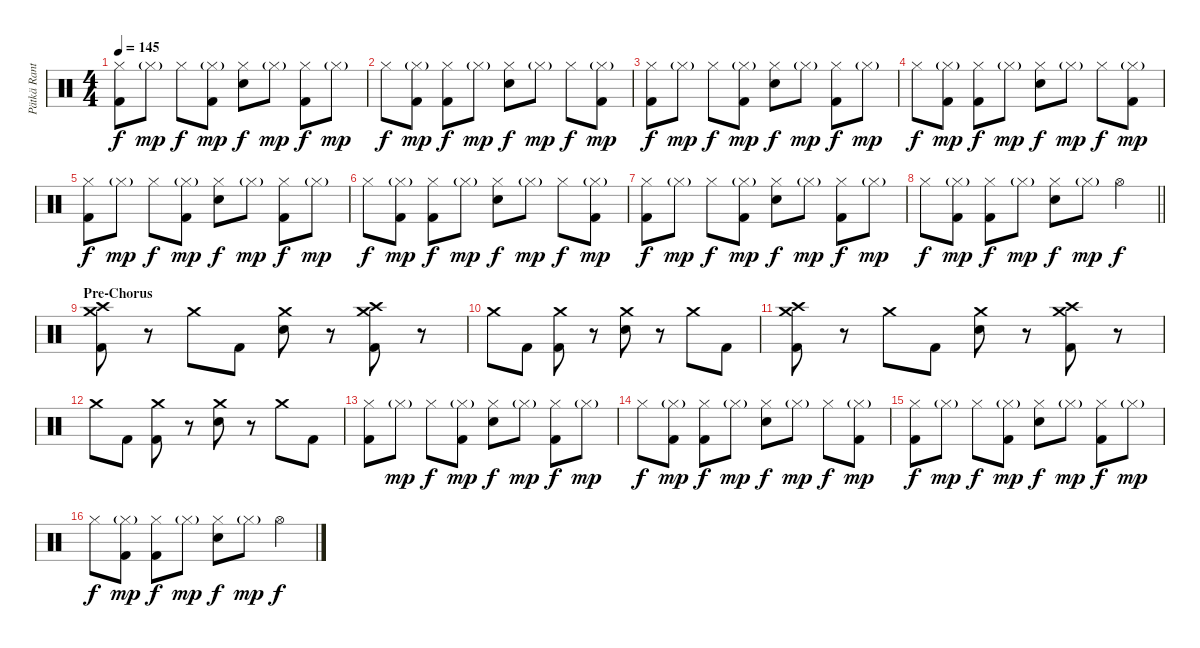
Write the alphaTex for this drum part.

\track ("Pätkä Rantala (Drums)" "Pätkä Rant") {instrument percussion}
\staff {score}
\articulation defaults
\ts (4 4)
\tempo 145
\clef neutral
\ks c
("Hi-Hat (closed)" "Kick (hit) 2").8{dy f} "Hi-Hat (closed)"{g}.8{dy mp} "Hi-Hat (closed)".8{dy f} ("Hi-Hat (closed)"{g} "Kick (hit) 2").8{dy mp} ("Hi-Hat (closed)" "Snare (hit) 2").8{dy f} "Hi-Hat (closed)"{g}.8{dy mp} ("Hi-Hat (closed)" "Kick (hit) 2").8{dy f} "Hi-Hat (closed)"{g}.8{dy mp} |
"Hi-Hat (closed)".8{dy f} ("Hi-Hat (closed)"{g} "Kick (hit) 2").8{dy mp} ("Hi-Hat (closed)" "Kick (hit) 2").8{dy f} "Hi-Hat (closed)"{g}.8{dy mp} ("Hi-Hat (closed)" "Snare (hit) 2").8{dy f} "Hi-Hat (closed)"{g}.8{dy mp} "Hi-Hat (closed)".8{dy f} ("Hi-Hat (closed)"{g} "Kick (hit) 2").8{dy mp} |
("Hi-Hat (closed)" "Kick (hit) 2").8{dy f} "Hi-Hat (closed)"{g}.8{dy mp} "Hi-Hat (closed)".8{dy f} ("Hi-Hat (closed)"{g} "Kick (hit) 2").8{dy mp} ("Hi-Hat (closed)" "Snare (hit) 2").8{dy f} "Hi-Hat (closed)"{g}.8{dy mp} ("Hi-Hat (closed)" "Kick (hit) 2").8{dy f} "Hi-Hat (closed)"{g}.8{dy mp} |
"Hi-Hat (closed)".8{dy f} ("Hi-Hat (closed)"{g} "Kick (hit) 2").8{dy mp} ("Hi-Hat (closed)" "Kick (hit) 2").8{dy f} "Hi-Hat (closed)"{g}.8{dy mp} ("Hi-Hat (closed)" "Snare (hit) 2").8{dy f} "Hi-Hat (closed)"{g}.8{dy mp} "Hi-Hat (closed)".8{dy f} ("Hi-Hat (closed)"{g} "Kick (hit) 2").8{dy mp} |
("Hi-Hat (closed)" "Kick (hit) 2").8{dy f} "Hi-Hat (closed)"{g}.8{dy mp} "Hi-Hat (closed)".8{dy f} ("Hi-Hat (closed)"{g} "Kick (hit) 2").8{dy mp} ("Hi-Hat (closed)" "Snare (hit) 2").8{dy f} "Hi-Hat (closed)"{g}.8{dy mp} ("Hi-Hat (closed)" "Kick (hit) 2").8{dy f} "Hi-Hat (closed)"{g}.8{dy mp} |
"Hi-Hat (closed)".8{dy f} ("Hi-Hat (closed)"{g} "Kick (hit) 2").8{dy mp} ("Hi-Hat (closed)" "Kick (hit) 2").8{dy f} "Hi-Hat (closed)"{g}.8{dy mp} ("Hi-Hat (closed)" "Snare (hit) 2").8{dy f} "Hi-Hat (closed)"{g}.8{dy mp} "Hi-Hat (closed)".8{dy f} ("Hi-Hat (closed)"{g} "Kick (hit) 2").8{dy mp} |
("Hi-Hat (closed)" "Kick (hit) 2").8{dy f} "Hi-Hat (closed)"{g}.8{dy mp} "Hi-Hat (closed)".8{dy f} ("Hi-Hat (closed)"{g} "Kick (hit) 2").8{dy mp} ("Hi-Hat (closed)" "Snare (hit) 2").8{dy f} "Hi-Hat (closed)"{g}.8{dy mp} ("Hi-Hat (closed)" "Kick (hit) 2").8{dy f} "Hi-Hat (closed)"{g}.8{dy mp} |
\barLineRight lightlight "Hi-Hat (closed)".8{dy f}
("Hi-Hat (closed)"{g} "Kick (hit) 2").8{dy mp} ("Hi-Hat (closed)" "Kick (hit) 2").8{dy f} "Hi-Hat (closed)"{g}.8{dy mp} ("Hi-Hat (closed)" "Snare (hit) 2").8{dy f} "Hi-Hat (closed)"{g}.8{dy mp} "Hi-Hat (open)".4{dy f} |
\section ("" "Pre-Chorus")
("Crash high (hit)" "Crash medium (hit)" "Kick (hit) 2").8 r.8 "Crash medium (hit)".8 "Kick (hit) 2".8 ("Crash medium (hit)" "Snare (hit) 2").8 r.8 ("Crash high (hit)" "Crash medium (hit)" "Kick (hit) 2").8 r.8 |
"Crash medium (hit)".8 "Kick (hit) 2".8 ("Crash medium (hit)" "Kick (hit) 2").8 r.8 ("Crash medium (hit)" "Snare (hit) 2").8 r.8 "Crash medium (hit)".8 "Kick (hit) 2".8 |
("Crash high (hit)" "Crash medium (hit)" "Kick (hit) 2").8 r.8 "Crash medium (hit)".8 "Kick (hit) 2".8 ("Crash medium (hit)" "Snare (hit) 2").8 r.8 ("Crash high (hit)" "Crash medium (hit)" "Kick (hit) 2").8 r.8 |
"Crash medium (hit)".8 "Kick (hit) 2".8 ("Crash medium (hit)" "Kick (hit) 2").8 r.8 ("Crash medium (hit)" "Snare (hit) 2").8 r.8 "Crash medium (hit)".8 "Kick (hit) 2".8 |
("Hi-Hat (closed)" "Kick (hit) 2").8 "Hi-Hat (closed)"{g}.8{dy mp} "Hi-Hat (closed)".8{dy f} ("Hi-Hat (closed)"{g} "Kick (hit) 2").8{dy mp} ("Hi-Hat (closed)" "Snare (hit) 2").8{dy f} "Hi-Hat (closed)"{g}.8{dy mp} ("Hi-Hat (closed)" "Kick (hit) 2").8{dy f} "Hi-Hat (closed)"{g}.8{dy mp} |
"Hi-Hat (closed)".8{dy f} ("Hi-Hat (closed)"{g} "Kick (hit) 2").8{dy mp} ("Hi-Hat (closed)" "Kick (hit) 2").8{dy f} "Hi-Hat (closed)"{g}.8{dy mp} ("Hi-Hat (closed)" "Snare (hit) 2").8{dy f} "Hi-Hat (closed)"{g}.8{dy mp} "Hi-Hat (closed)".8{dy f} ("Hi-Hat (closed)"{g} "Kick (hit) 2").8{dy mp} |
("Hi-Hat (closed)" "Kick (hit) 2").8{dy f} "Hi-Hat (closed)"{g}.8{dy mp} "Hi-Hat (closed)".8{dy f} ("Hi-Hat (closed)"{g} "Kick (hit) 2").8{dy mp} ("Hi-Hat (closed)" "Snare (hit) 2").8{dy f} "Hi-Hat (closed)"{g}.8{dy mp} ("Hi-Hat (closed)" "Kick (hit) 2").8{dy f} "Hi-Hat (closed)"{g}.8{dy mp} |
"Hi-Hat (closed)".8{dy f} ("Hi-Hat (closed)"{g} "Kick (hit) 2").8{dy mp} ("Hi-Hat (closed)" "Kick (hit) 2").8{dy f} "Hi-Hat (closed)"{g}.8{dy mp} ("Hi-Hat (closed)" "Snare (hit) 2").8{dy f} "Hi-Hat (closed)"{g}.8{dy mp} "Hi-Hat (open)".4{dy f}
